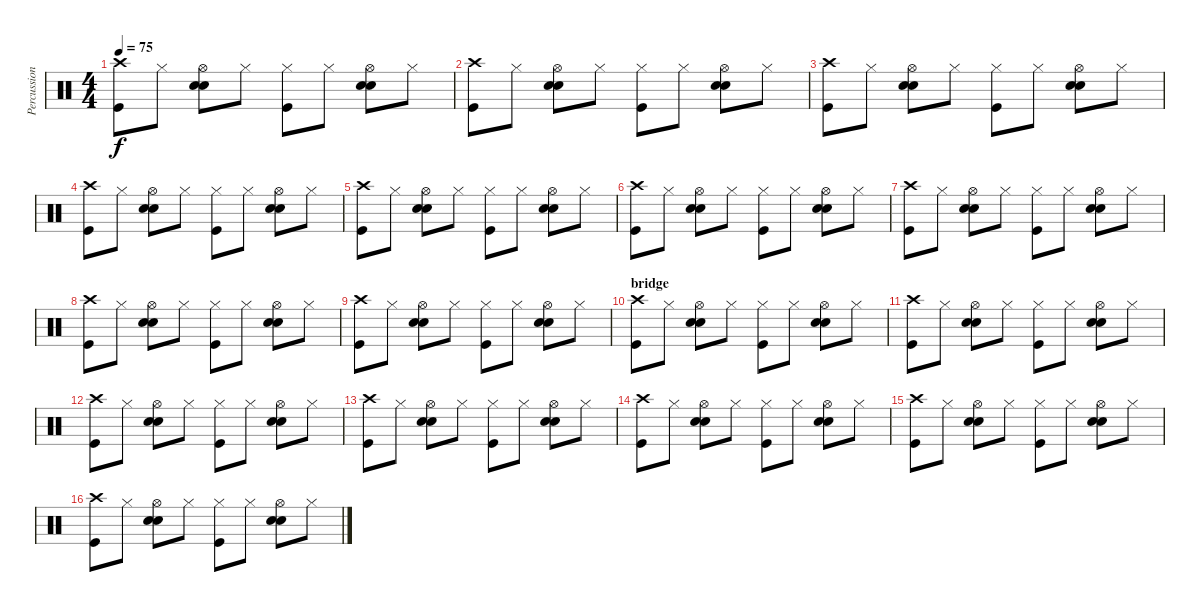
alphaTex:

\track ("Percussions" "Percussion") {instrument percussion}
\staff {score}
\articulation defaults
\ts (4 4)
\tempo 75
\clef neutral
\ks c
("Crash high (hit)" "Kick (hit)").8{dy f} "Hi-Hat (closed)".8 ("Hi-Hat (open)" "Snare (hit) 2" "Electric Snare (hit)").8 "Hi-Hat (closed)".8 ("Hi-Hat (closed)" "Kick (hit)").8 "Hi-Hat (closed)".8 ("Hi-Hat (open)" "Snare (hit) 2" "Electric Snare (hit)").8 "Hi-Hat (closed)".8 |
("Crash high (hit)" "Kick (hit)").8 "Hi-Hat (closed)".8 ("Hi-Hat (open)" "Snare (hit) 2" "Electric Snare (hit)").8 "Hi-Hat (closed)".8 ("Hi-Hat (closed)" "Kick (hit)").8 "Hi-Hat (closed)".8 ("Hi-Hat (open)" "Snare (hit) 2" "Electric Snare (hit)").8 "Hi-Hat (closed)".8 |
("Crash high (hit)" "Kick (hit)").8 "Hi-Hat (closed)".8 ("Hi-Hat (open)" "Snare (hit) 2" "Electric Snare (hit)").8 "Hi-Hat (closed)".8 ("Hi-Hat (closed)" "Kick (hit)").8 "Hi-Hat (closed)".8 ("Hi-Hat (open)" "Snare (hit) 2" "Electric Snare (hit)").8 "Hi-Hat (closed)".8 |
("Crash high (hit)" "Kick (hit)").8 "Hi-Hat (closed)".8 ("Hi-Hat (open)" "Snare (hit) 2" "Electric Snare (hit)").8 "Hi-Hat (closed)".8 ("Hi-Hat (closed)" "Kick (hit)").8 "Hi-Hat (closed)".8 ("Hi-Hat (open)" "Snare (hit) 2" "Electric Snare (hit)").8 "Hi-Hat (closed)".8 |
("Crash high (hit)" "Kick (hit)").8 "Hi-Hat (closed)".8 ("Hi-Hat (open)" "Snare (hit) 2" "Electric Snare (hit)").8 "Hi-Hat (closed)".8 ("Hi-Hat (closed)" "Kick (hit)").8 "Hi-Hat (closed)".8 ("Hi-Hat (open)" "Snare (hit) 2" "Electric Snare (hit)").8 "Hi-Hat (closed)".8 |
("Crash high (hit)" "Kick (hit)").8 "Hi-Hat (closed)".8 ("Hi-Hat (open)" "Snare (hit) 2" "Electric Snare (hit)").8 "Hi-Hat (closed)".8 ("Hi-Hat (closed)" "Kick (hit)").8 "Hi-Hat (closed)".8 ("Hi-Hat (open)" "Snare (hit) 2" "Electric Snare (hit)").8 "Hi-Hat (closed)".8 |
("Crash high (hit)" "Kick (hit)").8 "Hi-Hat (closed)".8 ("Hi-Hat (open)" "Snare (hit) 2" "Electric Snare (hit)").8 "Hi-Hat (closed)".8 ("Hi-Hat (closed)" "Kick (hit)").8 "Hi-Hat (closed)".8 ("Hi-Hat (open)" "Snare (hit) 2" "Electric Snare (hit)").8 "Hi-Hat (closed)".8 |
("Crash high (hit)" "Kick (hit)").8 "Hi-Hat (closed)".8 ("Hi-Hat (open)" "Snare (hit) 2" "Electric Snare (hit)").8 "Hi-Hat (closed)".8 ("Hi-Hat (closed)" "Kick (hit)").8 "Hi-Hat (closed)".8 ("Hi-Hat (open)" "Snare (hit) 2" "Electric Snare (hit)").8 "Hi-Hat (closed)".8 |
("Crash high (hit)" "Kick (hit)").8 "Hi-Hat (closed)".8 ("Hi-Hat (open)" "Snare (hit) 2" "Electric Snare (hit)").8 "Hi-Hat (closed)".8 ("Hi-Hat (closed)" "Kick (hit)").8 "Hi-Hat (closed)".8 ("Hi-Hat (open)" "Snare (hit) 2" "Electric Snare (hit)").8 "Hi-Hat (closed)".8 |
\section ("" "bridge")
("Crash high (hit)" "Kick (hit)").8 "Hi-Hat (closed)".8 ("Hi-Hat (open)" "Snare (hit) 2" "Electric Snare (hit)").8 "Hi-Hat (closed)".8 ("Hi-Hat (closed)" "Kick (hit)").8 "Hi-Hat (closed)".8 ("Hi-Hat (open)" "Snare (hit) 2" "Electric Snare (hit)").8 "Hi-Hat (closed)".8 |
("Crash high (hit)" "Kick (hit)").8 "Hi-Hat (closed)".8 ("Hi-Hat (open)" "Snare (hit) 2" "Electric Snare (hit)").8 "Hi-Hat (closed)".8 ("Hi-Hat (closed)" "Kick (hit)").8 "Hi-Hat (closed)".8 ("Hi-Hat (open)" "Snare (hit) 2" "Electric Snare (hit)").8 "Hi-Hat (closed)".8 |
("Crash high (hit)" "Kick (hit)").8 "Hi-Hat (closed)".8 ("Hi-Hat (open)" "Snare (hit) 2" "Electric Snare (hit)").8 "Hi-Hat (closed)".8 ("Hi-Hat (closed)" "Kick (hit)").8 "Hi-Hat (closed)".8 ("Hi-Hat (open)" "Snare (hit) 2" "Electric Snare (hit)").8 "Hi-Hat (closed)".8 |
("Crash high (hit)" "Kick (hit)").8 "Hi-Hat (closed)".8 ("Hi-Hat (open)" "Snare (hit) 2" "Electric Snare (hit)").8 "Hi-Hat (closed)".8 ("Hi-Hat (closed)" "Kick (hit)").8 "Hi-Hat (closed)".8 ("Hi-Hat (open)" "Snare (hit) 2" "Electric Snare (hit)").8 "Hi-Hat (closed)".8 |
("Crash high (hit)" "Kick (hit)").8 "Hi-Hat (closed)".8 ("Hi-Hat (open)" "Snare (hit) 2" "Electric Snare (hit)").8 "Hi-Hat (closed)".8 ("Hi-Hat (closed)" "Kick (hit)").8 "Hi-Hat (closed)".8 ("Hi-Hat (open)" "Snare (hit) 2" "Electric Snare (hit)").8 "Hi-Hat (closed)".8 |
("Crash high (hit)" "Kick (hit)").8 "Hi-Hat (closed)".8 ("Hi-Hat (open)" "Snare (hit) 2" "Electric Snare (hit)").8 "Hi-Hat (closed)".8 ("Hi-Hat (closed)" "Kick (hit)").8 "Hi-Hat (closed)".8 ("Hi-Hat (open)" "Snare (hit) 2" "Electric Snare (hit)").8 "Hi-Hat (closed)".8 |
("Crash high (hit)" "Kick (hit)").8 "Hi-Hat (closed)".8 ("Hi-Hat (open)" "Snare (hit) 2" "Electric Snare (hit)").8 "Hi-Hat (closed)".8 ("Hi-Hat (closed)" "Kick (hit)").8 "Hi-Hat (closed)".8 ("Hi-Hat (open)" "Snare (hit) 2" "Electric Snare (hit)").8 "Hi-Hat (closed)".8
